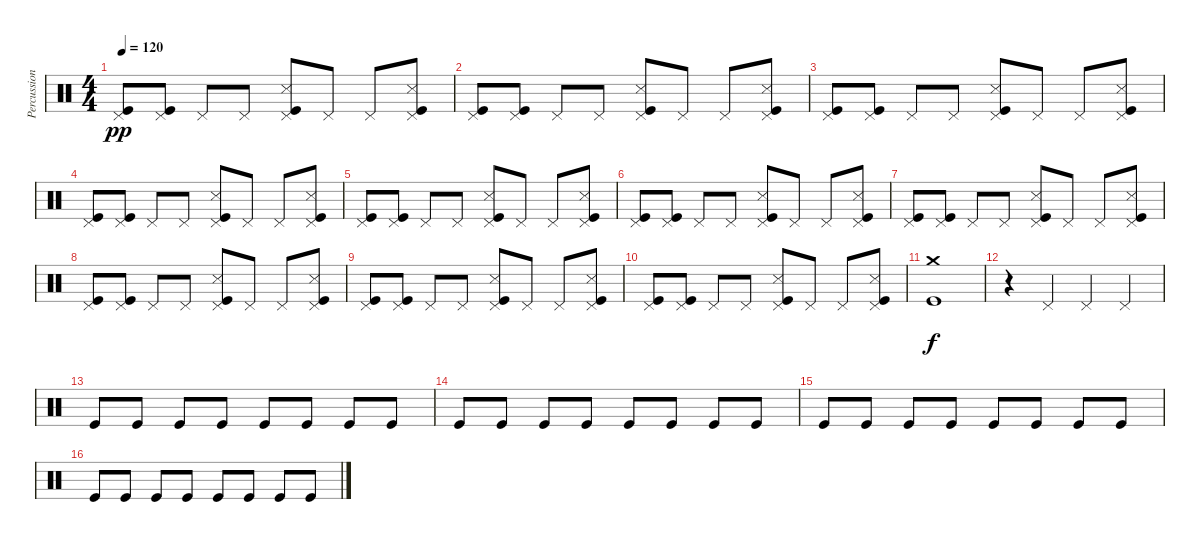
\track ("Percussions" "Percussion") {instrument percussion}
\staff {score}
\articulation defaults
\ts (4 4)
\tempo 120
\clef neutral
\ks c
("Kick (hit)" "Pedal Hi-Hat (hit)").8{dy pp} ("Kick (hit)" "Pedal Hi-Hat (hit)").8 "Pedal Hi-Hat (hit)".8 "Pedal Hi-Hat (hit)".8 ("Snare (side stick) 3" "Kick (hit)" "Pedal Hi-Hat (hit)").8 "Pedal Hi-Hat (hit)".8 "Pedal Hi-Hat (hit)".8 ("Snare (side stick) 3" "Kick (hit)" "Pedal Hi-Hat (hit)").8 |
("Kick (hit)" "Pedal Hi-Hat (hit)").8 ("Kick (hit)" "Pedal Hi-Hat (hit)").8 "Pedal Hi-Hat (hit)".8 "Pedal Hi-Hat (hit)".8 ("Snare (side stick) 3" "Kick (hit)" "Pedal Hi-Hat (hit)").8 "Pedal Hi-Hat (hit)".8 "Pedal Hi-Hat (hit)".8 ("Snare (side stick) 3" "Kick (hit)" "Pedal Hi-Hat (hit)").8 |
("Kick (hit)" "Pedal Hi-Hat (hit)").8 ("Kick (hit)" "Pedal Hi-Hat (hit)").8 "Pedal Hi-Hat (hit)".8 "Pedal Hi-Hat (hit)".8 ("Snare (side stick) 3" "Kick (hit)" "Pedal Hi-Hat (hit)").8 "Pedal Hi-Hat (hit)".8 "Pedal Hi-Hat (hit)".8 ("Snare (side stick) 3" "Kick (hit)" "Pedal Hi-Hat (hit)").8 |
("Kick (hit)" "Pedal Hi-Hat (hit)").8 ("Kick (hit)" "Pedal Hi-Hat (hit)").8 "Pedal Hi-Hat (hit)".8 "Pedal Hi-Hat (hit)".8 ("Snare (side stick) 3" "Kick (hit)" "Pedal Hi-Hat (hit)").8 "Pedal Hi-Hat (hit)".8 "Pedal Hi-Hat (hit)".8 ("Snare (side stick) 3" "Kick (hit)" "Pedal Hi-Hat (hit)").8 |
("Kick (hit)" "Pedal Hi-Hat (hit)").8 ("Kick (hit)" "Pedal Hi-Hat (hit)").8 "Pedal Hi-Hat (hit)".8 "Pedal Hi-Hat (hit)".8 ("Snare (side stick) 3" "Kick (hit)" "Pedal Hi-Hat (hit)").8 "Pedal Hi-Hat (hit)".8 "Pedal Hi-Hat (hit)".8 ("Snare (side stick) 3" "Kick (hit)" "Pedal Hi-Hat (hit)").8 |
("Kick (hit)" "Pedal Hi-Hat (hit)").8 ("Kick (hit)" "Pedal Hi-Hat (hit)").8 "Pedal Hi-Hat (hit)".8 "Pedal Hi-Hat (hit)".8 ("Snare (side stick) 3" "Kick (hit)" "Pedal Hi-Hat (hit)").8 "Pedal Hi-Hat (hit)".8 "Pedal Hi-Hat (hit)".8 ("Snare (side stick) 3" "Kick (hit)" "Pedal Hi-Hat (hit)").8 |
("Kick (hit)" "Pedal Hi-Hat (hit)").8 ("Kick (hit)" "Pedal Hi-Hat (hit)").8 "Pedal Hi-Hat (hit)".8 "Pedal Hi-Hat (hit)".8 ("Snare (side stick) 3" "Kick (hit)" "Pedal Hi-Hat (hit)").8 "Pedal Hi-Hat (hit)".8 "Pedal Hi-Hat (hit)".8 ("Snare (side stick) 3" "Kick (hit)" "Pedal Hi-Hat (hit)").8 |
("Kick (hit)" "Pedal Hi-Hat (hit)").8 ("Kick (hit)" "Pedal Hi-Hat (hit)").8 "Pedal Hi-Hat (hit)".8 "Pedal Hi-Hat (hit)".8 ("Snare (side stick) 3" "Kick (hit)" "Pedal Hi-Hat (hit)").8 "Pedal Hi-Hat (hit)".8 "Pedal Hi-Hat (hit)".8 ("Snare (side stick) 3" "Kick (hit)" "Pedal Hi-Hat (hit)").8 |
("Kick (hit)" "Pedal Hi-Hat (hit)").8 ("Kick (hit)" "Pedal Hi-Hat (hit)").8 "Pedal Hi-Hat (hit)".8 "Pedal Hi-Hat (hit)".8 ("Snare (side stick) 3" "Kick (hit)" "Pedal Hi-Hat (hit)").8 "Pedal Hi-Hat (hit)".8 "Pedal Hi-Hat (hit)".8 ("Snare (side stick) 3" "Kick (hit)" "Pedal Hi-Hat (hit)").8 |
("Kick (hit)" "Pedal Hi-Hat (hit)").8 ("Kick (hit)" "Pedal Hi-Hat (hit)").8 "Pedal Hi-Hat (hit)".8 "Pedal Hi-Hat (hit)".8 ("Snare (side stick) 3" "Kick (hit)" "Pedal Hi-Hat (hit)").8 "Pedal Hi-Hat (hit)".8 "Pedal Hi-Hat (hit)".8 ("Snare (side stick) 3" "Kick (hit)" "Pedal Hi-Hat (hit)").8 |
("Crash medium (hit)" "Kick (hit)").1{dy f} |
r.4 "Pedal Hi-Hat (hit)".4 "Pedal Hi-Hat (hit)".4 "Pedal Hi-Hat (hit)".4 |
"Kick (hit)".8 "Kick (hit)".8 "Kick (hit)".8 "Kick (hit)".8 "Kick (hit)".8 "Kick (hit)".8 "Kick (hit)".8 "Kick (hit)".8 |
"Kick (hit)".8 "Kick (hit)".8 "Kick (hit)".8 "Kick (hit)".8 "Kick (hit)".8 "Kick (hit)".8 "Kick (hit)".8 "Kick (hit)".8 |
"Kick (hit)".8 "Kick (hit)".8 "Kick (hit)".8 "Kick (hit)".8 "Kick (hit)".8 "Kick (hit)".8 "Kick (hit)".8 "Kick (hit)".8 |
"Kick (hit)".8 "Kick (hit)".8 "Kick (hit)".8 "Kick (hit)".8 "Kick (hit)".8 "Kick (hit)".8 "Kick (hit)".8 "Kick (hit)".8
